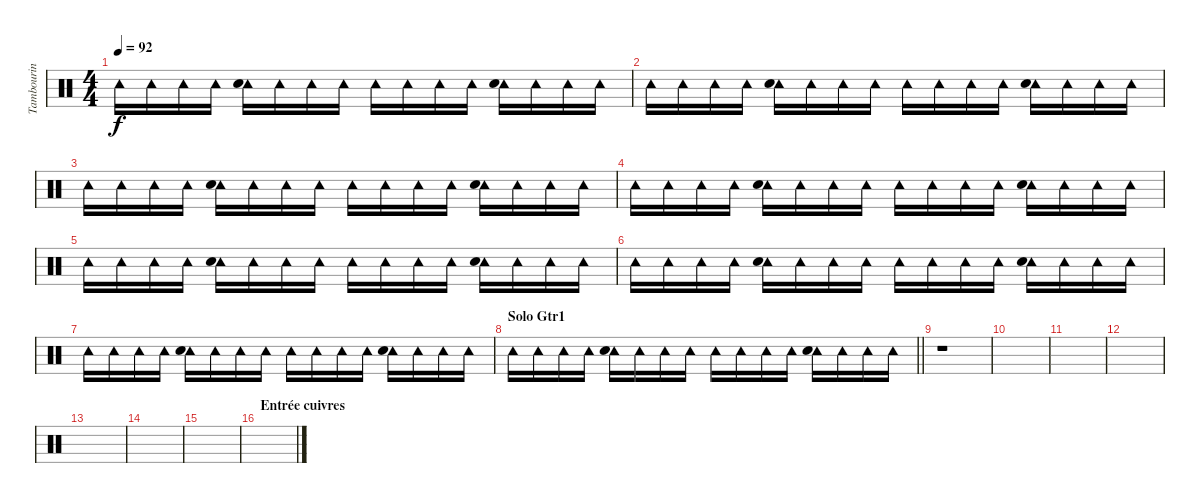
\track ("Tambourin" "Tambourin") {instrument percussion}
\staff {score}
\articulation defaults
\ts (4 4)
\tempo 92
\clef neutral
\ks c "Tambourine (hit)".16{dy f} "Tambourine (hit)".16 "Tambourine (hit)".16 "Tambourine (hit)".16
("Tambourine (hit)" "Hand Clap (hit)").16 "Tambourine (hit)".16 "Tambourine (hit)".16 "Tambourine (hit)".16 "Tambourine (hit)".16 "Tambourine (hit)".16 "Tambourine (hit)".16 "Tambourine (hit)".16 ("Tambourine (hit)" "Hand Clap (hit)").16 "Tambourine (hit)".16 "Tambourine (hit)".16 "Tambourine (hit)".16 |
"Tambourine (hit)".16 "Tambourine (hit)".16 "Tambourine (hit)".16 "Tambourine (hit)".16 ("Tambourine (hit)" "Hand Clap (hit)").16 "Tambourine (hit)".16 "Tambourine (hit)".16 "Tambourine (hit)".16 "Tambourine (hit)".16 "Tambourine (hit)".16 "Tambourine (hit)".16 "Tambourine (hit)".16 ("Tambourine (hit)" "Hand Clap (hit)").16 "Tambourine (hit)".16 "Tambourine (hit)".16 "Tambourine (hit)".16 |
"Tambourine (hit)".16 "Tambourine (hit)".16 "Tambourine (hit)".16 "Tambourine (hit)".16 ("Tambourine (hit)" "Hand Clap (hit)").16 "Tambourine (hit)".16 "Tambourine (hit)".16 "Tambourine (hit)".16 "Tambourine (hit)".16 "Tambourine (hit)".16 "Tambourine (hit)".16 "Tambourine (hit)".16 ("Tambourine (hit)" "Hand Clap (hit)").16 "Tambourine (hit)".16 "Tambourine (hit)".16 "Tambourine (hit)".16 |
"Tambourine (hit)".16 "Tambourine (hit)".16 "Tambourine (hit)".16 "Tambourine (hit)".16 ("Tambourine (hit)" "Hand Clap (hit)").16 "Tambourine (hit)".16 "Tambourine (hit)".16 "Tambourine (hit)".16 "Tambourine (hit)".16 "Tambourine (hit)".16 "Tambourine (hit)".16 "Tambourine (hit)".16 ("Tambourine (hit)" "Hand Clap (hit)").16 "Tambourine (hit)".16 "Tambourine (hit)".16 "Tambourine (hit)".16 |
"Tambourine (hit)".16 "Tambourine (hit)".16 "Tambourine (hit)".16 "Tambourine (hit)".16 ("Tambourine (hit)" "Hand Clap (hit)").16 "Tambourine (hit)".16 "Tambourine (hit)".16 "Tambourine (hit)".16 "Tambourine (hit)".16 "Tambourine (hit)".16 "Tambourine (hit)".16 "Tambourine (hit)".16 ("Tambourine (hit)" "Hand Clap (hit)").16 "Tambourine (hit)".16 "Tambourine (hit)".16 "Tambourine (hit)".16 |
"Tambourine (hit)".16 "Tambourine (hit)".16 "Tambourine (hit)".16 "Tambourine (hit)".16 ("Tambourine (hit)" "Hand Clap (hit)").16 "Tambourine (hit)".16 "Tambourine (hit)".16 "Tambourine (hit)".16 "Tambourine (hit)".16 "Tambourine (hit)".16 "Tambourine (hit)".16 "Tambourine (hit)".16 ("Tambourine (hit)" "Hand Clap (hit)").16 "Tambourine (hit)".16 "Tambourine (hit)".16 "Tambourine (hit)".16 |
"Tambourine (hit)".16 "Tambourine (hit)".16 "Tambourine (hit)".16 "Tambourine (hit)".16 ("Tambourine (hit)" "Hand Clap (hit)").16 "Tambourine (hit)".16 "Tambourine (hit)".16 "Tambourine (hit)".16 "Tambourine (hit)".16 "Tambourine (hit)".16 "Tambourine (hit)".16 "Tambourine (hit)".16 ("Tambourine (hit)" "Hand Clap (hit)").16 "Tambourine (hit)".16 "Tambourine (hit)".16 "Tambourine (hit)".16 |
\section ("" "Solo Gtr1")
\barLineRight lightlight "Tambourine (hit)".16 "Tambourine (hit)".16 "Tambourine (hit)".16 "Tambourine (hit)".16
("Tambourine (hit)" "Hand Clap (hit)").16 "Tambourine (hit)".16 "Tambourine (hit)".16 "Tambourine (hit)".16 "Tambourine (hit)".16 "Tambourine (hit)".16 "Tambourine (hit)".16 "Tambourine (hit)".16 ("Tambourine (hit)" "Hand Clap (hit)").16 "Tambourine (hit)".16 "Tambourine (hit)".16 "Tambourine (hit)".16 |
r.1 |
|
|
|
|
|
|
\section ("" "Entrée cuivres")
